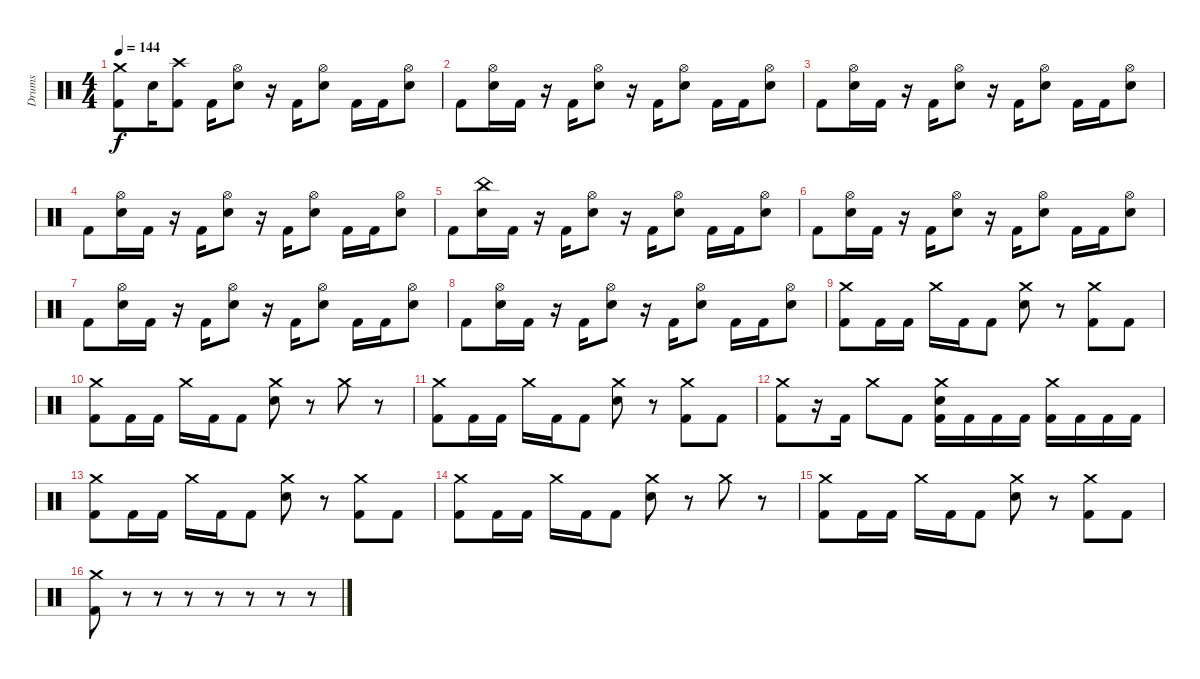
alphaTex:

\track ("Drums" "Drums") {instrument percussion}
\staff {score}
\articulation defaults
\ts (4 4)
\tempo 144
\clef neutral
\ks c
("Crash medium (hit)" "Kick (hit) 2").8{dy f} "Electric Snare (hit)".16 ("Crash high (hit)" "Kick (hit) 2").8 "Kick (hit) 2".16 ("Hi-Hat (open)" "Electric Snare (hit)").8 r.16 "Kick (hit) 2".16 ("Hi-Hat (open)" "Electric Snare (hit)").8 "Kick (hit) 2".16 "Kick (hit) 2".16 ("Hi-Hat (open)" "Electric Snare (hit)").8 |
"Kick (hit) 2".8 ("Hi-Hat (open)" "Electric Snare (hit)").16 "Kick (hit) 2".16 r.16 "Kick (hit) 2".16 ("Hi-Hat (open)" "Electric Snare (hit)").8 r.16 "Kick (hit) 2".16 ("Hi-Hat (open)" "Electric Snare (hit)").8 "Kick (hit) 2".16 "Kick (hit) 2".16 ("Hi-Hat (open)" "Electric Snare (hit)").8 |
"Kick (hit) 2".8 ("Hi-Hat (open)" "Electric Snare (hit)").16 "Kick (hit) 2".16 r.16 "Kick (hit) 2".16 ("Hi-Hat (open)" "Electric Snare (hit)").8 r.16 "Kick (hit) 2".16 ("Hi-Hat (open)" "Electric Snare (hit)").8 "Kick (hit) 2".16 "Kick (hit) 2".16 ("Hi-Hat (open)" "Electric Snare (hit)").8 |
"Kick (hit) 2".8 ("Hi-Hat (open)" "Electric Snare (hit)").16 "Kick (hit) 2".16 r.16 "Kick (hit) 2".16 ("Hi-Hat (open)" "Electric Snare (hit)").8 r.16 "Kick (hit) 2".16 ("Hi-Hat (open)" "Electric Snare (hit)").8 "Kick (hit) 2".16 "Kick (hit) 2".16 ("Hi-Hat (open)" "Electric Snare (hit)").8 |
"Kick (hit) 2".8 ("China (hit)" "Electric Snare (hit)").16 "Kick (hit) 2".16 r.16 "Kick (hit) 2".16 ("Hi-Hat (open)" "Electric Snare (hit)").8 r.16 "Kick (hit) 2".16 ("Hi-Hat (open)" "Electric Snare (hit)").8 "Kick (hit) 2".16 "Kick (hit) 2".16 ("Hi-Hat (open)" "Electric Snare (hit)").8 |
"Kick (hit) 2".8 ("Hi-Hat (open)" "Electric Snare (hit)").16 "Kick (hit) 2".16 r.16 "Kick (hit) 2".16 ("Hi-Hat (open)" "Electric Snare (hit)").8 r.16 "Kick (hit) 2".16 ("Hi-Hat (open)" "Electric Snare (hit)").8 "Kick (hit) 2".16 "Kick (hit) 2".16 ("Hi-Hat (open)" "Electric Snare (hit)").8 |
"Kick (hit) 2".8 ("Hi-Hat (open)" "Electric Snare (hit)").16 "Kick (hit) 2".16 r.16 "Kick (hit) 2".16 ("Hi-Hat (open)" "Electric Snare (hit)").8 r.16 "Kick (hit) 2".16 ("Hi-Hat (open)" "Electric Snare (hit)").8 "Kick (hit) 2".16 "Kick (hit) 2".16 ("Hi-Hat (open)" "Electric Snare (hit)").8 |
"Kick (hit) 2".8 ("Hi-Hat (open)" "Electric Snare (hit)").16 "Kick (hit) 2".16 r.16 "Kick (hit) 2".16 ("Hi-Hat (open)" "Electric Snare (hit)").8 r.16 "Kick (hit) 2".16 ("Hi-Hat (open)" "Electric Snare (hit)").8 "Kick (hit) 2".16 "Kick (hit) 2".16 ("Hi-Hat (open)" "Electric Snare (hit)").8 |
("Crash medium (hit)" "Kick (hit) 2").8 "Kick (hit) 2".16 "Kick (hit) 2".16 "Crash medium (hit)".16 "Kick (hit) 2".16 "Kick (hit) 2".8 ("Crash medium (hit)" "Electric Snare (hit)").8 r.8 ("Crash medium (hit)" "Kick (hit) 2").8 "Kick (hit) 2".8 |
("Crash medium (hit)" "Kick (hit) 2").8 "Kick (hit) 2".16 "Kick (hit) 2".16 "Crash medium (hit)".16 "Kick (hit) 2".16 "Kick (hit) 2".8 ("Crash medium (hit)" "Electric Snare (hit)").8 r.8 "Crash medium (hit)".8 r.8 |
("Crash medium (hit)" "Kick (hit) 2").8 "Kick (hit) 2".16 "Kick (hit) 2".16 "Crash medium (hit)".16 "Kick (hit) 2".16 "Kick (hit) 2".8 ("Crash medium (hit)" "Electric Snare (hit)").8 r.8 ("Crash medium (hit)" "Kick (hit) 2").8 "Kick (hit) 2".8 |
("Crash medium (hit)" "Kick (hit) 2").8 r.16 "Kick (hit) 2".16 "Crash medium (hit)".8 "Kick (hit) 2".8 ("Crash medium (hit)" "Electric Snare (hit)" "Kick (hit) 2").16 "Kick (hit) 2".16 "Kick (hit) 2".16 "Kick (hit) 2".16 ("Crash medium (hit)" "Kick (hit) 2").16 "Kick (hit) 2".16 "Kick (hit) 2".16 "Kick (hit) 2".16 |
("Crash medium (hit)" "Kick (hit) 2").8 "Kick (hit) 2".16 "Kick (hit) 2".16 "Crash medium (hit)".16 "Kick (hit) 2".16 "Kick (hit) 2".8 ("Crash medium (hit)" "Electric Snare (hit)").8 r.8 ("Crash medium (hit)" "Kick (hit) 2").8 "Kick (hit) 2".8 |
("Crash medium (hit)" "Kick (hit) 2").8 "Kick (hit) 2".16 "Kick (hit) 2".16 "Crash medium (hit)".16 "Kick (hit) 2".16 "Kick (hit) 2".8 ("Crash medium (hit)" "Electric Snare (hit)").8 r.8 "Crash medium (hit)".8 r.8 |
("Crash medium (hit)" "Kick (hit) 2").8 "Kick (hit) 2".16 "Kick (hit) 2".16 "Crash medium (hit)".16 "Kick (hit) 2".16 "Kick (hit) 2".8 ("Crash medium (hit)" "Electric Snare (hit)").8 r.8 ("Crash medium (hit)" "Kick (hit) 2").8 "Kick (hit) 2".8 |
("Crash medium (hit)" "Kick (hit) 2").8 r.8 r.8 r.8 r.8 r.8 r.8 r.8
